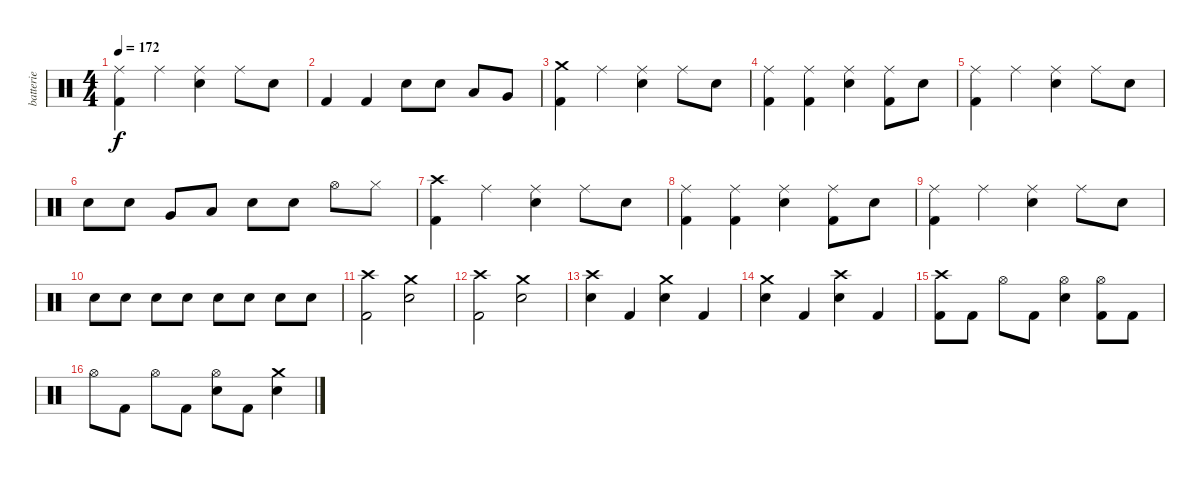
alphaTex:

\track ("batterie" "batterie") {instrument percussion}
\staff {score}
\articulation defaults
\ts (4 4)
\tempo 172
\clef neutral
\ks c
("Ride (middle)" "Kick (hit) 2").4{dy f} "Ride (middle)".4 ("Ride (middle)" "Electric Snare (hit)").4 "Ride (middle)".8 "Electric Snare (hit)".8 |
"Kick (hit) 2".4 "Kick (hit) 2".4 "Electric Snare (hit)".8 "Electric Snare (hit)".8 "Low Tom (hit)".8 "Very Low Tom (hit)".8 |
("Crash medium (hit)" "Kick (hit) 2").4 "Ride (middle)".4 ("Electric Snare (hit)" "Ride (middle)").4 "Ride (middle)".8 "Electric Snare (hit)".8 |
("Kick (hit) 2" "Ride (middle)").4 ("Kick (hit) 2" "Ride (middle)").4 ("Ride (middle)" "Electric Snare (hit)").4 ("Ride (middle)" "Kick (hit) 2").8 "Electric Snare (hit)".8 |
("Ride (middle)" "Kick (hit) 2").4 "Ride (middle)".4 ("Ride (middle)" "Electric Snare (hit)").4 "Ride (middle)".8 "Electric Snare (hit)".8 |
"Electric Snare (hit)".8 "Electric Snare (hit)".8 "Very Low Tom (hit)".8 "Low Tom (hit)".8 "Electric Snare (hit)".8 "Electric Snare (hit)".8 "Hi-Hat (open)".8 "Hi-Hat (closed)".8 |
("Crash high (hit)" "Kick (hit) 2").4 "Ride (middle)".4 ("Electric Snare (hit)" "Ride (middle)").4 "Ride (middle)".8 "Electric Snare (hit)".8 |
("Kick (hit) 2" "Ride (middle)").4 ("Kick (hit) 2" "Ride (middle)").4 ("Ride (middle)" "Electric Snare (hit)").4 ("Ride (middle)" "Kick (hit) 2").8 "Electric Snare (hit)".8 |
("Ride (middle)" "Kick (hit) 2").4 "Ride (middle)".4 ("Ride (middle)" "Electric Snare (hit)").4 "Ride (middle)".8 "Electric Snare (hit)".8 |
"Electric Snare (hit)".8 "Electric Snare (hit)".8 "Electric Snare (hit)".8 "Electric Snare (hit)".8 "Electric Snare (hit)".8 "Electric Snare (hit)".8 "Electric Snare (hit)".8 "Electric Snare (hit)".8 |
("Kick (hit) 2" "Crash high (hit)").2 ("Electric Snare (hit)" "Crash medium (hit)").2 |
("Crash high (hit)" "Kick (hit) 2").2 ("Crash medium (hit)" "Electric Snare (hit)").2 |
("Crash high (hit)" "Electric Snare (hit)").4 "Kick (hit) 2".4 ("Electric Snare (hit)" "Crash medium (hit)").4 "Kick (hit) 2".4 |
("Electric Snare (hit)" "Crash medium (hit)").4 "Kick (hit) 2".4 ("Electric Snare (hit)" "Crash high (hit)").4 "Kick (hit) 2".4 |
("Crash high (hit)" "Kick (hit) 2").8 "Kick (hit) 2".8 "Hi-Hat (open)".8 "Kick (hit) 2".8 ("Hi-Hat (open)" "Electric Snare (hit)").4 ("Hi-Hat (open)" "Kick (hit) 2").8 "Kick (hit) 2".8 |
"Hi-Hat (open)".8 "Kick (hit) 2".8 "Hi-Hat (open)".8 "Kick (hit) 2".8 ("Hi-Hat (open)" "Electric Snare (hit)").8 "Kick (hit) 2".8 ("Electric Snare (hit)" "Crash medium (hit)").4
